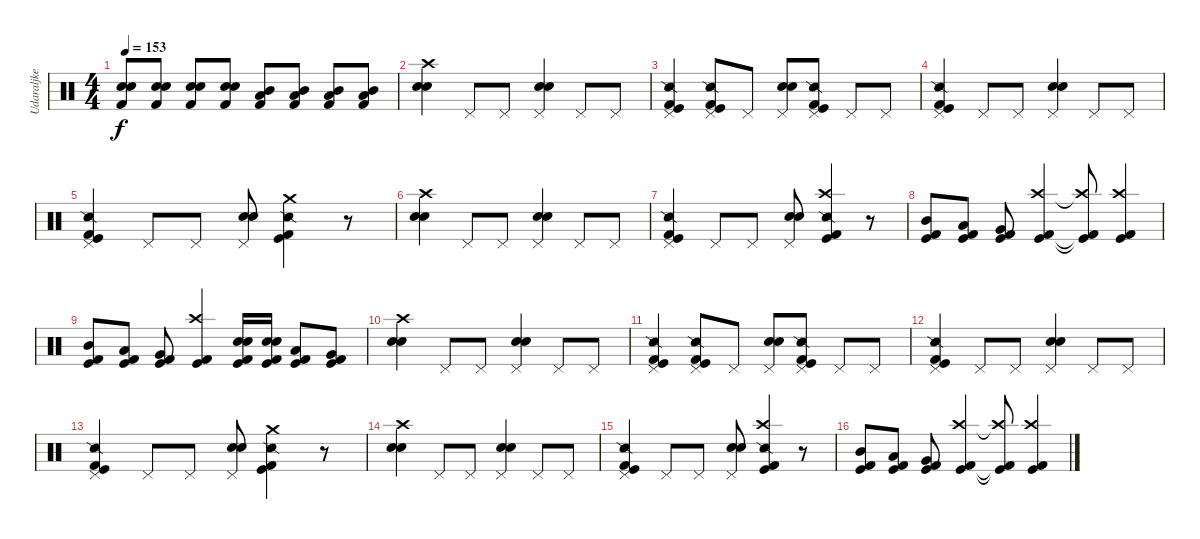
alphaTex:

\track ("Udaraljke" "Udaraljke") {instrument percussion}
\staff {score}
\articulation defaults
\ts (4 4)
\tempo 153
\clef neutral
\ks c
("Electric Snare (hit)" "Snare (hit) 2" "Kick (hit) 2").8{dy f} ("Electric Snare (hit)" "Snare (hit) 2" "Kick (hit) 2").8 ("Electric Snare (hit)" "Snare (hit) 2" "Kick (hit) 2").8 ("Electric Snare (hit)" "Snare (hit) 2" "Kick (hit) 2").8 ("Mid Tom (hit)" "Low Tom (hit)" "Kick (hit) 2").8 ("Mid Tom (hit)" "Low Tom (hit)" "Kick (hit) 2").8 ("Mid Tom (hit)" "Low Tom (hit)" "Kick (hit) 2").8 ("Mid Tom (hit)" "Low Tom (hit)" "Kick (hit) 2").8 |
("Crash high (hit)" "Electric Snare (hit)" "Snare (hit) 2").4 "Pedal Hi-Hat (hit)".8 "Pedal Hi-Hat (hit)".8 ("Pedal Hi-Hat (hit)" "Electric Snare (hit)" "Snare (hit) 2").4 "Pedal Hi-Hat (hit)".8 "Pedal Hi-Hat (hit)".8 |
("Pedal Hi-Hat (hit)" "Kick (hit) 2" "Kick (hit)" "Snare (side stick) 2").4 ("Pedal Hi-Hat (hit)" "Kick (hit) 2" "Kick (hit)" "Snare (side stick) 2").8 "Pedal Hi-Hat (hit)".8 ("Pedal Hi-Hat (hit)" "Electric Snare (hit)" "Snare (hit) 2").8 ("Pedal Hi-Hat (hit)" "Kick (hit) 2" "Kick (hit)" "Snare (side stick) 2").8 "Pedal Hi-Hat (hit)".8 "Pedal Hi-Hat (hit)".8 |
("Pedal Hi-Hat (hit)" "Kick (hit) 2" "Kick (hit)" "Snare (side stick) 2").4 "Pedal Hi-Hat (hit)".8 "Pedal Hi-Hat (hit)".8 ("Pedal Hi-Hat (hit)" "Electric Snare (hit)" "Snare (hit) 2").4 "Pedal Hi-Hat (hit)".8 "Pedal Hi-Hat (hit)".8 |
("Pedal Hi-Hat (hit)" "Kick (hit) 2" "Kick (hit)" "Snare (side stick) 2").4 "Pedal Hi-Hat (hit)".8 "Pedal Hi-Hat (hit)".8 ("Pedal Hi-Hat (hit)" "Electric Snare (hit)" "Snare (hit) 2").8 ("Crash medium (hit)" "Kick (hit) 2" "Kick (hit)" "Snare (side stick) 2").4 r.8 |
("Crash high (hit)" "Electric Snare (hit)" "Snare (hit) 2").4 "Pedal Hi-Hat (hit)".8 "Pedal Hi-Hat (hit)".8 ("Pedal Hi-Hat (hit)" "Electric Snare (hit)" "Snare (hit) 2").4 "Pedal Hi-Hat (hit)".8 "Pedal Hi-Hat (hit)".8 |
("Pedal Hi-Hat (hit)" "Kick (hit) 2" "Kick (hit)" "Snare (side stick) 2").4 "Pedal Hi-Hat (hit)".8 "Pedal Hi-Hat (hit)".8 ("Pedal Hi-Hat (hit)" "Electric Snare (hit)" "Snare (hit) 2").8 ("Crash high (hit)" "Kick (hit) 2" "Kick (hit)" "Snare (side stick) 2").4 r.8 |
("Mid Tom (hit)" "Kick (hit) 2" "Kick (hit)").8 ("Low Tom (hit)" "Kick (hit) 2" "Kick (hit)").8 ("Very Low Tom (hit)" "Kick (hit) 2" "Kick (hit)").8 ("Crash high (hit)" "Kick (hit) 2" "Kick (hit)").4 ("Crash high (hit)"{t} "Kick (hit) 2"{t} "Kick (hit)"{t}).8 ("Crash high (hit)" "Kick (hit) 2" "Kick (hit)").4 |
("Mid Tom (hit)" "Kick (hit) 2" "Kick (hit)").8 ("Low Tom (hit)" "Kick (hit) 2" "Kick (hit)").8 ("Very Low Tom (hit)" "Kick (hit) 2" "Kick (hit)").8 ("Crash high (hit)" "Kick (hit) 2" "Kick (hit)").4 ("Electric Snare (hit)" "Snare (hit) 2" "Kick (hit) 2" "Kick (hit)").16 ("Electric Snare (hit)" "Snare (hit) 2" "Kick (hit) 2" "Kick (hit)").16 ("Low Tom (hit)" "Kick (hit) 2" "Kick (hit)").8 ("Very Low Tom (hit)" "Kick (hit) 2" "Kick (hit)").8 |
("Crash high (hit)" "Electric Snare (hit)" "Snare (hit) 2").4 "Pedal Hi-Hat (hit)".8 "Pedal Hi-Hat (hit)".8 ("Pedal Hi-Hat (hit)" "Electric Snare (hit)" "Snare (hit) 2").4 "Pedal Hi-Hat (hit)".8 "Pedal Hi-Hat (hit)".8 |
("Pedal Hi-Hat (hit)" "Kick (hit) 2" "Kick (hit)" "Snare (side stick) 2").4 ("Pedal Hi-Hat (hit)" "Kick (hit) 2" "Kick (hit)" "Snare (side stick) 2").8 "Pedal Hi-Hat (hit)".8 ("Pedal Hi-Hat (hit)" "Electric Snare (hit)" "Snare (hit) 2").8 ("Pedal Hi-Hat (hit)" "Kick (hit) 2" "Kick (hit)" "Snare (side stick) 2").8 "Pedal Hi-Hat (hit)".8 "Pedal Hi-Hat (hit)".8 |
("Pedal Hi-Hat (hit)" "Kick (hit) 2" "Kick (hit)" "Snare (side stick) 2").4 "Pedal Hi-Hat (hit)".8 "Pedal Hi-Hat (hit)".8 ("Pedal Hi-Hat (hit)" "Electric Snare (hit)" "Snare (hit) 2").4 "Pedal Hi-Hat (hit)".8 "Pedal Hi-Hat (hit)".8 |
("Pedal Hi-Hat (hit)" "Kick (hit) 2" "Kick (hit)" "Snare (side stick) 2").4 "Pedal Hi-Hat (hit)".8 "Pedal Hi-Hat (hit)".8 ("Pedal Hi-Hat (hit)" "Electric Snare (hit)" "Snare (hit) 2").8 ("Crash medium (hit)" "Kick (hit) 2" "Kick (hit)" "Snare (side stick) 2").4 r.8 |
("Crash high (hit)" "Electric Snare (hit)" "Snare (hit) 2").4 "Pedal Hi-Hat (hit)".8 "Pedal Hi-Hat (hit)".8 ("Pedal Hi-Hat (hit)" "Electric Snare (hit)" "Snare (hit) 2").4 "Pedal Hi-Hat (hit)".8 "Pedal Hi-Hat (hit)".8 |
("Pedal Hi-Hat (hit)" "Kick (hit) 2" "Kick (hit)" "Snare (side stick) 2").4 "Pedal Hi-Hat (hit)".8 "Pedal Hi-Hat (hit)".8 ("Pedal Hi-Hat (hit)" "Electric Snare (hit)" "Snare (hit) 2").8 ("Crash high (hit)" "Kick (hit) 2" "Kick (hit)" "Snare (side stick) 2").4 r.8 |
("Mid Tom (hit)" "Kick (hit) 2" "Kick (hit)").8 ("Low Tom (hit)" "Kick (hit) 2" "Kick (hit)").8 ("Very Low Tom (hit)" "Kick (hit) 2" "Kick (hit)").8 ("Crash high (hit)" "Kick (hit) 2" "Kick (hit)").4 ("Crash high (hit)"{t} "Kick (hit) 2"{t} "Kick (hit)"{t}).8 ("Crash high (hit)" "Kick (hit) 2" "Kick (hit)").4
